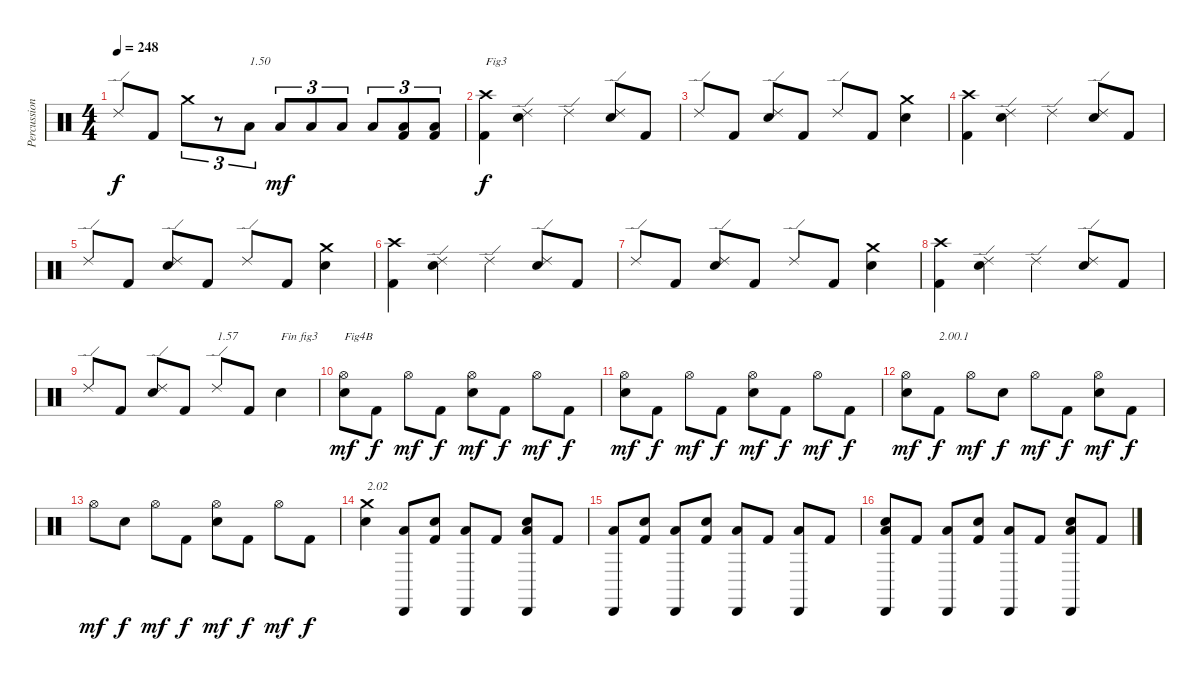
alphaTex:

\track ("Percussions" "Percussion") {instrument percussion}
\staff {score}
\articulation defaults
\ts (4 4)
\tempo 248
\clef neutral
\ks c "Ride (edge) 2".8{dy f} "Kick (hit) 2".8 "Crash medium (hit)".8{tu (3 2)}
r.8{tu (3 2)} "Low Floor Tom (hit)".8{tu (3 2) txt "1.50"} "Low Floor Tom (hit)".8{tu (3 2) dy mf} "Low Floor Tom (hit)".8{tu (3 2)} "Low Floor Tom (hit)".8{tu (3 2)} "Low Floor Tom (hit)".8{tu (3 2)} ("Kick (hit) 2" "Low Floor Tom (hit)").8{tu (3 2)} ("Kick (hit) 2" "Low Floor Tom (hit)").8{tu (3 2)} |
("Kick (hit) 2" "Crash high (hit)").4{txt "Fig3" dy f} ("Electric Snare (hit)" "Ride (edge) 2").4 "Ride (edge) 2".4 ("Electric Snare (hit)" "Ride (edge) 2").8 "Kick (hit) 2".8 |
"Ride (edge) 2".8 "Kick (hit) 2".8 ("Electric Snare (hit)" "Ride (edge) 2").8 "Kick (hit) 2".8 "Ride (edge) 2".8 "Kick (hit) 2".8 ("Electric Snare (hit)" "Crash medium (hit)").4 |
("Kick (hit) 2" "Crash high (hit)").4 ("Electric Snare (hit)" "Ride (edge) 2").4 "Ride (edge) 2".4 ("Electric Snare (hit)" "Ride (edge) 2").8 "Kick (hit) 2".8 |
"Ride (edge) 2".8 "Kick (hit) 2".8 ("Electric Snare (hit)" "Ride (edge) 2").8 "Kick (hit) 2".8 "Ride (edge) 2".8 "Kick (hit) 2".8 ("Electric Snare (hit)" "Crash medium (hit)").4 |
("Kick (hit) 2" "Crash high (hit)").4 ("Electric Snare (hit)" "Ride (edge) 2").4 "Ride (edge) 2".4 ("Electric Snare (hit)" "Ride (edge) 2").8 "Kick (hit) 2".8 |
"Ride (edge) 2".8 "Kick (hit) 2".8 ("Electric Snare (hit)" "Ride (edge) 2").8 "Kick (hit) 2".8 "Ride (edge) 2".8 "Kick (hit) 2".8 ("Electric Snare (hit)" "Crash medium (hit)").4 |
("Kick (hit) 2" "Crash high (hit)").4 ("Electric Snare (hit)" "Ride (edge) 2").4 "Ride (edge) 2".4 ("Electric Snare (hit)" "Ride (edge) 2").8 "Kick (hit) 2".8 |
"Ride (edge) 2".8 "Kick (hit) 2".8 ("Electric Snare (hit)" "Ride (edge) 2").8 "Kick (hit) 2".8 "Ride (edge) 2".8{txt "1.57"} "Kick (hit) 2".8 "Electric Snare (hit)".4{txt "Fin fig3"} |
("Electric Snare (hit)" "Hi-Hat (open)").8{txt "Fig4B" dy mf} "Kick (hit) 2".8{dy f} "Hi-Hat (open)".8{dy mf} "Kick (hit) 2".8{dy f} ("Electric Snare (hit)" "Hi-Hat (open)").8{dy mf} "Kick (hit) 2".8{dy f} "Hi-Hat (open)".8{dy mf} "Kick (hit) 2".8{dy f} |
("Electric Snare (hit)" "Hi-Hat (open)").8{dy mf} "Kick (hit) 2".8{dy f} "Hi-Hat (open)".8{dy mf} "Kick (hit) 2".8{dy f} ("Electric Snare (hit)" "Hi-Hat (open)").8{dy mf} "Kick (hit) 2".8{dy f} "Hi-Hat (open)".8{dy mf} "Kick (hit) 2".8{dy f} |
("Electric Snare (hit)" "Hi-Hat (open)").8{dy mf} "Kick (hit) 2".8{txt "2.00.1" dy f} "Hi-Hat (open)".8{dy mf} "Electric Snare (hit)".8{dy f} "Hi-Hat (open)".8{dy mf} "Kick (hit) 2".8{dy f} ("Electric Snare (hit)" "Hi-Hat (open)").8{dy mf} "Kick (hit) 2".8{dy f} |
"Hi-Hat (open)".8{dy mf} "Electric Snare (hit)".8{dy f} "Hi-Hat (open)".8{dy mf} "Kick (hit) 2".8{dy f} ("Electric Snare (hit)" "Hi-Hat (open)").8{dy mf} "Kick (hit) 2".8{dy f} "Hi-Hat (open)".8{dy mf} "Kick (hit) 2".8{dy f} |
("Electric Snare (hit)" "Crash medium (hit)").4{txt "2.02"} ("Low Floor Tom (hit)" "Cabasa (hit)").8 ("Kick (hit) 2" "Electric Snare (hit)").8 ("Low Floor Tom (hit)" "Cabasa (hit)").8 "Kick (hit) 2".8 ("Low Floor Tom (hit)" "Electric Snare (hit)" "Cabasa (hit)").8 "Kick (hit) 2".8 |
("Low Floor Tom (hit)" "Cabasa (hit)").8 ("Kick (hit) 2" "Electric Snare (hit)").8 ("Low Floor Tom (hit)" "Cabasa (hit)").8 ("Kick (hit) 2" "Electric Snare (hit)").8 ("Low Floor Tom (hit)" "Cabasa (hit)").8 "Kick (hit) 2".8 ("Low Floor Tom (hit)" "Cabasa (hit)").8 "Kick (hit) 2".8 |
("Low Floor Tom (hit)" "Electric Snare (hit)" "Cabasa (hit)").8 "Kick (hit) 2".8 ("Low Floor Tom (hit)" "Cabasa (hit)").8 ("Kick (hit) 2" "Electric Snare (hit)").8 ("Low Floor Tom (hit)" "Cabasa (hit)").8 "Kick (hit) 2".8 ("Low Floor Tom (hit)" "Electric Snare (hit)" "Cabasa (hit)").8 "Kick (hit) 2".8
